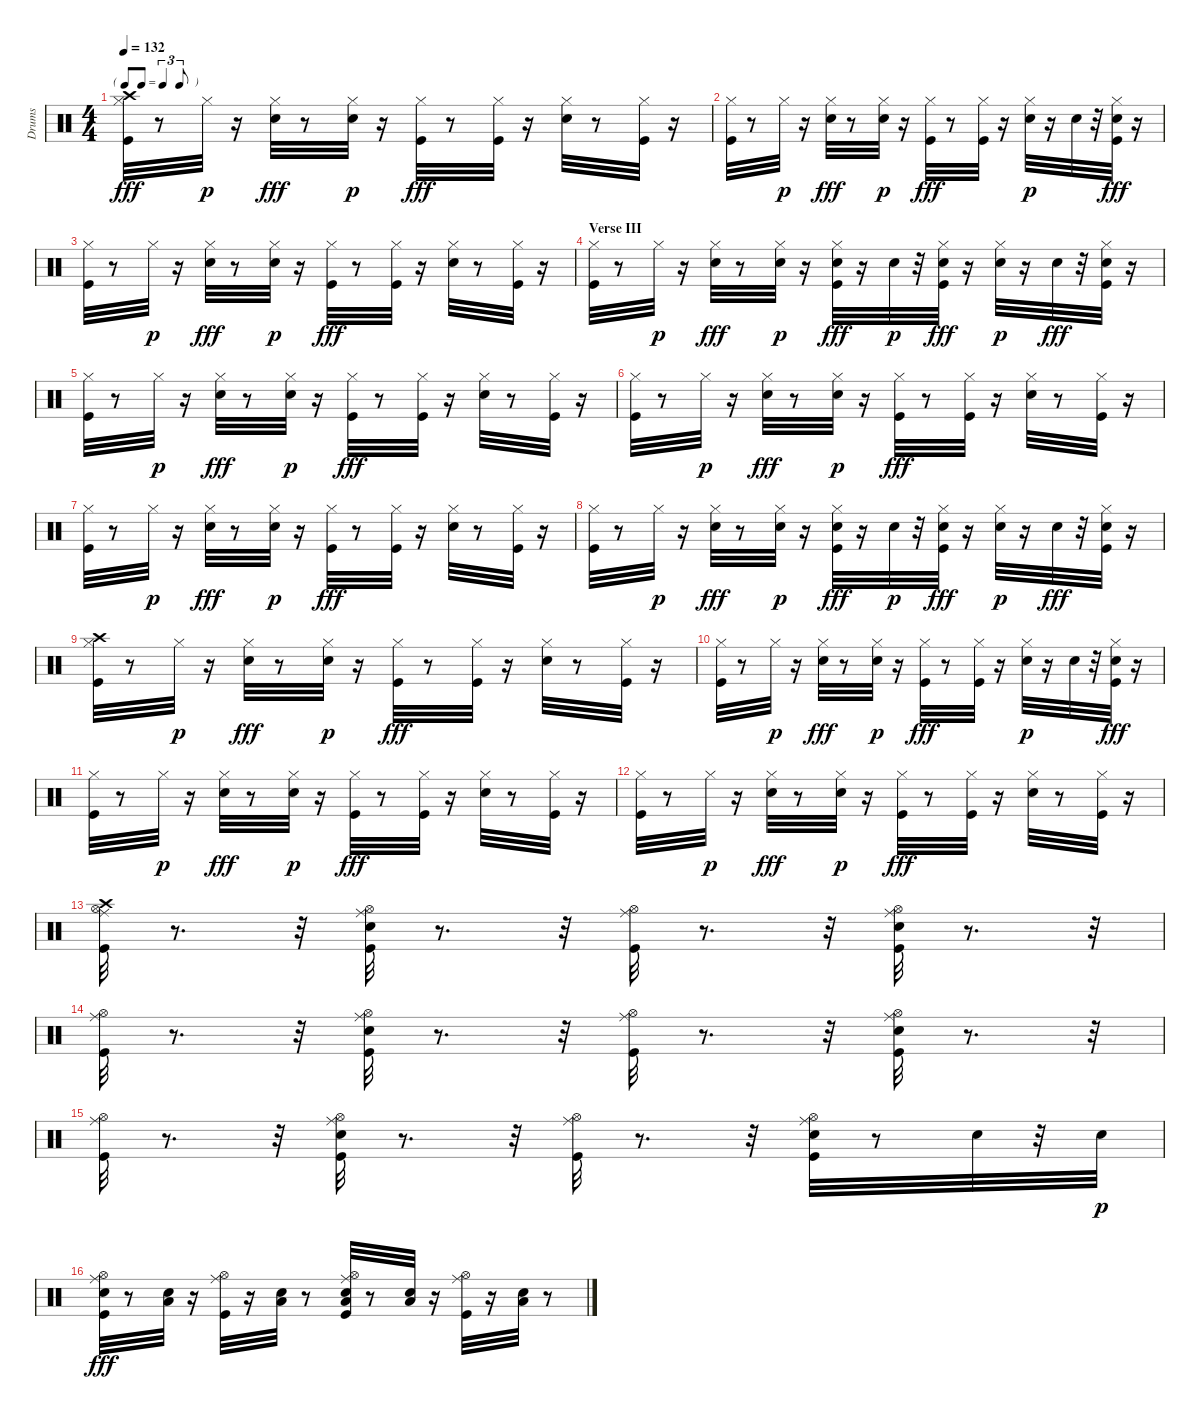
\track ("Drums" "Drums") {instrument percussion}
\staff {score}
\articulation defaults
\ts (4 4)
\tf triplet8th
\tempo 132
\clef neutral
\ks c
("Hi-Hat (closed)" "Kick (hit)" "Crash high (hit)").32{dy fff} r.8 "Hi-Hat (closed)".32{dy p} r.16 ("Hi-Hat (closed)" "Snare (hit) 2").32{dy fff} r.8 ("Hi-Hat (closed)" "Snare (hit) 2").32{dy p} r.16 ("Hi-Hat (closed)" "Kick (hit)").32{dy fff} r.8 ("Hi-Hat (closed)" "Kick (hit)").32 r.16 ("Hi-Hat (closed)" "Snare (hit) 2").32 r.8 ("Hi-Hat (closed)" "Kick (hit)").32 r.16 |
("Hi-Hat (closed)" "Kick (hit)").32 r.8 "Hi-Hat (closed)".32{dy p} r.16 ("Hi-Hat (closed)" "Snare (hit) 2").32{dy fff} r.8 ("Hi-Hat (closed)" "Snare (hit) 2").32{dy p} r.16 ("Hi-Hat (closed)" "Kick (hit)").32{dy fff} r.8 ("Hi-Hat (closed)" "Kick (hit)").32 r.16 ("Hi-Hat (closed)" "Snare (hit) 2").32{dy p} r.16 "Snare (hit) 2".32 r.32 ("Hi-Hat (closed)" "Snare (hit) 2" "Kick (hit)").32{dy fff} r.16 |
("Hi-Hat (closed)" "Kick (hit)").32 r.8 "Hi-Hat (closed)".32{dy p} r.16 ("Hi-Hat (closed)" "Snare (hit) 2").32{dy fff} r.8 ("Hi-Hat (closed)" "Snare (hit) 2").32{dy p} r.16 ("Hi-Hat (closed)" "Kick (hit)").32{dy fff} r.8 ("Hi-Hat (closed)" "Kick (hit)").32 r.16 ("Hi-Hat (closed)" "Snare (hit) 2").32 r.8 ("Hi-Hat (closed)" "Kick (hit)").32 r.16 |
\section ("" "Verse III")
("Hi-Hat (closed)" "Kick (hit)").32 r.8 "Hi-Hat (closed)".32{dy p} r.16 ("Hi-Hat (closed)" "Snare (hit) 2").32{dy fff} r.8 ("Hi-Hat (closed)" "Snare (hit) 2").32{dy p} r.16 ("Hi-Hat (closed)" "Snare (hit) 2" "Kick (hit)").32{dy fff} r.16 "Snare (hit) 2".32{dy p} r.32 ("Hi-Hat (closed)" "Snare (hit) 2" "Kick (hit)").32{dy fff} r.16 ("Hi-Hat (closed)" "Snare (hit) 2").32{dy p} r.16 "Snare (hit) 2".32{dy fff} r.32 ("Hi-Hat (closed)" "Snare (hit) 2" "Kick (hit)").32 r.16 |
("Hi-Hat (closed)" "Kick (hit)").32 r.8 "Hi-Hat (closed)".32{dy p} r.16 ("Hi-Hat (closed)" "Snare (hit) 2").32{dy fff} r.8 ("Hi-Hat (closed)" "Snare (hit) 2").32{dy p} r.16 ("Hi-Hat (closed)" "Kick (hit)").32{dy fff} r.8 ("Hi-Hat (closed)" "Kick (hit)").32 r.16 ("Hi-Hat (closed)" "Snare (hit) 2").32 r.8 ("Hi-Hat (closed)" "Kick (hit)").32 r.16 |
("Hi-Hat (closed)" "Kick (hit)").32 r.8 "Hi-Hat (closed)".32{dy p} r.16 ("Hi-Hat (closed)" "Snare (hit) 2").32{dy fff} r.8 ("Hi-Hat (closed)" "Snare (hit) 2").32{dy p} r.16 ("Hi-Hat (closed)" "Kick (hit)").32{dy fff} r.8 ("Hi-Hat (closed)" "Kick (hit)").32 r.16 ("Hi-Hat (closed)" "Snare (hit) 2").32 r.8 ("Hi-Hat (closed)" "Kick (hit)").32 r.16 |
("Hi-Hat (closed)" "Kick (hit)").32 r.8 "Hi-Hat (closed)".32{dy p} r.16 ("Hi-Hat (closed)" "Snare (hit) 2").32{dy fff} r.8 ("Hi-Hat (closed)" "Snare (hit) 2").32{dy p} r.16 ("Hi-Hat (closed)" "Kick (hit)").32{dy fff} r.8 ("Hi-Hat (closed)" "Kick (hit)").32 r.16 ("Hi-Hat (closed)" "Snare (hit) 2").32 r.8 ("Hi-Hat (closed)" "Kick (hit)").32 r.16 |
("Hi-Hat (closed)" "Kick (hit)").32 r.8 "Hi-Hat (closed)".32{dy p} r.16 ("Hi-Hat (closed)" "Snare (hit) 2").32{dy fff} r.8 ("Hi-Hat (closed)" "Snare (hit) 2").32{dy p} r.16 ("Hi-Hat (closed)" "Snare (hit) 2" "Kick (hit)").32{dy fff} r.16 "Snare (hit) 2".32{dy p} r.32 ("Hi-Hat (closed)" "Snare (hit) 2" "Kick (hit)").32{dy fff} r.16 ("Hi-Hat (closed)" "Snare (hit) 2").32{dy p} r.16 "Snare (hit) 2".32{dy fff} r.32 ("Hi-Hat (closed)" "Snare (hit) 2" "Kick (hit)").32 r.16 |
("Hi-Hat (closed)" "Kick (hit)" "Crash high (hit)").32 r.8 "Hi-Hat (closed)".32{dy p} r.16 ("Hi-Hat (closed)" "Snare (hit) 2").32{dy fff} r.8 ("Hi-Hat (closed)" "Snare (hit) 2").32{dy p} r.16 ("Hi-Hat (closed)" "Kick (hit)").32{dy fff} r.8 ("Hi-Hat (closed)" "Kick (hit)").32 r.16 ("Hi-Hat (closed)" "Snare (hit) 2").32 r.8 ("Hi-Hat (closed)" "Kick (hit)").32 r.16 |
("Hi-Hat (closed)" "Kick (hit)").32 r.8 "Hi-Hat (closed)".32{dy p} r.16 ("Hi-Hat (closed)" "Snare (hit) 2").32{dy fff} r.8 ("Hi-Hat (closed)" "Snare (hit) 2").32{dy p} r.16 ("Hi-Hat (closed)" "Kick (hit)").32{dy fff} r.8 ("Hi-Hat (closed)" "Kick (hit)").32 r.16 ("Hi-Hat (closed)" "Snare (hit) 2").32{dy p} r.16 "Snare (hit) 2".32 r.32 ("Hi-Hat (closed)" "Snare (hit) 2" "Kick (hit)").32{dy fff} r.16 |
("Hi-Hat (closed)" "Kick (hit)").32 r.8 "Hi-Hat (closed)".32{dy p} r.16 ("Hi-Hat (closed)" "Snare (hit) 2").32{dy fff} r.8 ("Hi-Hat (closed)" "Snare (hit) 2").32{dy p} r.16 ("Hi-Hat (closed)" "Kick (hit)").32{dy fff} r.8 ("Hi-Hat (closed)" "Kick (hit)").32 r.16 ("Hi-Hat (closed)" "Snare (hit) 2").32 r.8 ("Hi-Hat (closed)" "Kick (hit)").32 r.16 |
("Hi-Hat (closed)" "Kick (hit)").32 r.8 "Hi-Hat (closed)".32{dy p} r.16 ("Hi-Hat (closed)" "Snare (hit) 2").32{dy fff} r.8 ("Hi-Hat (closed)" "Snare (hit) 2").32{dy p} r.16 ("Hi-Hat (closed)" "Kick (hit)").32{dy fff} r.8 ("Hi-Hat (closed)" "Kick (hit)").32 r.16 ("Hi-Hat (closed)" "Snare (hit) 2").32 r.8 ("Hi-Hat (closed)" "Kick (hit)").32 r.16 |
("Kick (hit)" "Crash high (hit)" "Ride (middle)" "Hi-Hat (open)").32 r.8{d} r.32 ("Snare (hit) 2" "Kick (hit)" "Ride (middle)" "Hi-Hat (open)").32 r.8{d} r.32 ("Kick (hit)" "Ride (middle)" "Hi-Hat (open)").32 r.8{d} r.32 ("Snare (hit) 2" "Kick (hit)" "Ride (middle)" "Hi-Hat (open)").32 r.8{d} r.32 |
("Kick (hit)" "Ride (middle)" "Hi-Hat (open)").32 r.8{d} r.32 ("Snare (hit) 2" "Kick (hit)" "Ride (middle)" "Hi-Hat (open)").32 r.8{d} r.32 ("Kick (hit)" "Ride (middle)" "Hi-Hat (open)").32 r.8{d} r.32 ("Snare (hit) 2" "Kick (hit)" "Ride (middle)" "Hi-Hat (open)").32 r.8{d} r.32 |
("Kick (hit)" "Ride (middle)" "Hi-Hat (open)").32 r.8{d} r.32 ("Snare (hit) 2" "Kick (hit)" "Ride (middle)" "Hi-Hat (open)").32 r.8{d} r.32 ("Kick (hit)" "Ride (middle)" "Hi-Hat (open)").32 r.8{d} r.32 ("Snare (hit) 2" "Kick (hit)" "Ride (middle)" "Hi-Hat (open)").32 r.8 "Snare (hit) 2".32 r.32 "Snare (hit) 2".32{dy p} |
("Snare (hit) 2" "Kick (hit)" "Ride (middle)" "Hi-Hat (open)").32{dy fff} r.8 ("Snare (hit) 2" "Low Tom (hit)").32 r.16 ("Kick (hit)" "Ride (middle)" "Hi-Hat (open)").32 r.16 ("Snare (hit) 2" "Low Tom (hit)").32 r.8 ("Snare (hit) 2" "Low Tom (hit)" "Kick (hit)" "Ride (middle)" "Hi-Hat (open)").32 r.8 ("Snare (hit) 2" "Low Tom (hit)").32 r.16 ("Kick (hit)" "Ride (middle)" "Hi-Hat (open)").32 r.16 ("Snare (hit) 2" "Low Tom (hit)").32 r.8
